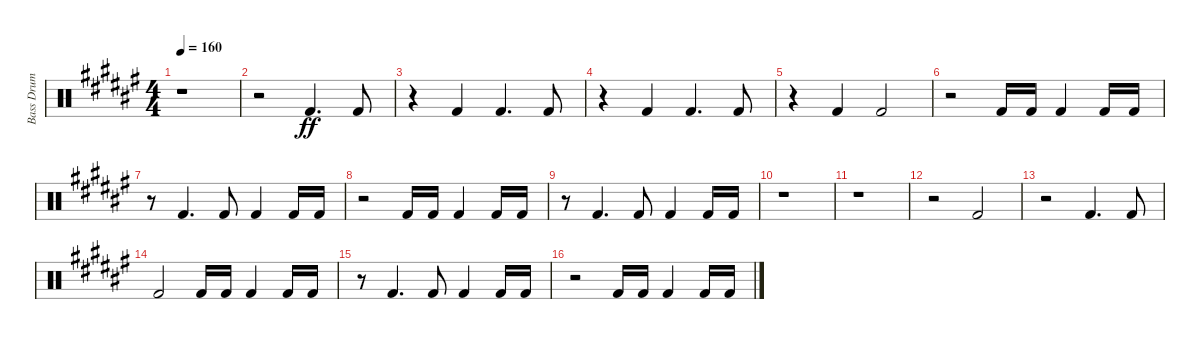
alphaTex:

\track ("Bass Drum" "Bass Drum") {instrument percussion}
\staff {score}
\articulation defaults
\ts (4 4)
\tempo 160
\clef neutral
\ks d#minor
r.1{dy ff} |
r.2 "Kick (hit) 2".4{d} "Kick (hit) 2".8 |
r.4 "Kick (hit) 2".4 "Kick (hit) 2".4{d} "Kick (hit) 2".8 |
r.4 "Kick (hit) 2".4 "Kick (hit) 2".4{d} "Kick (hit) 2".8 |
r.4 "Kick (hit) 2".4 "Kick (hit) 2".2 |
r.2 "Kick (hit) 2".16 "Kick (hit) 2".16 "Kick (hit) 2".4 "Kick (hit) 2".16 "Kick (hit) 2".16 |
r.8 "Kick (hit) 2".4{d} "Kick (hit) 2".8 "Kick (hit) 2".4 "Kick (hit) 2".16 "Kick (hit) 2".16 |
r.2 "Kick (hit) 2".16 "Kick (hit) 2".16 "Kick (hit) 2".4 "Kick (hit) 2".16 "Kick (hit) 2".16 |
r.8 "Kick (hit) 2".4{d} "Kick (hit) 2".8 "Kick (hit) 2".4 "Kick (hit) 2".16 "Kick (hit) 2".16 |
r.1 |
r.1 |
r.2 "Kick (hit) 2".2 |
r.2 "Kick (hit) 2".4{d} "Kick (hit) 2".8 |
"Kick (hit) 2".2 "Kick (hit) 2".16 "Kick (hit) 2".16 "Kick (hit) 2".4 "Kick (hit) 2".16 "Kick (hit) 2".16 |
r.8 "Kick (hit) 2".4{d} "Kick (hit) 2".8 "Kick (hit) 2".4 "Kick (hit) 2".16 "Kick (hit) 2".16 |
r.2 "Kick (hit) 2".16 "Kick (hit) 2".16 "Kick (hit) 2".4 "Kick (hit) 2".16 "Kick (hit) 2".16
